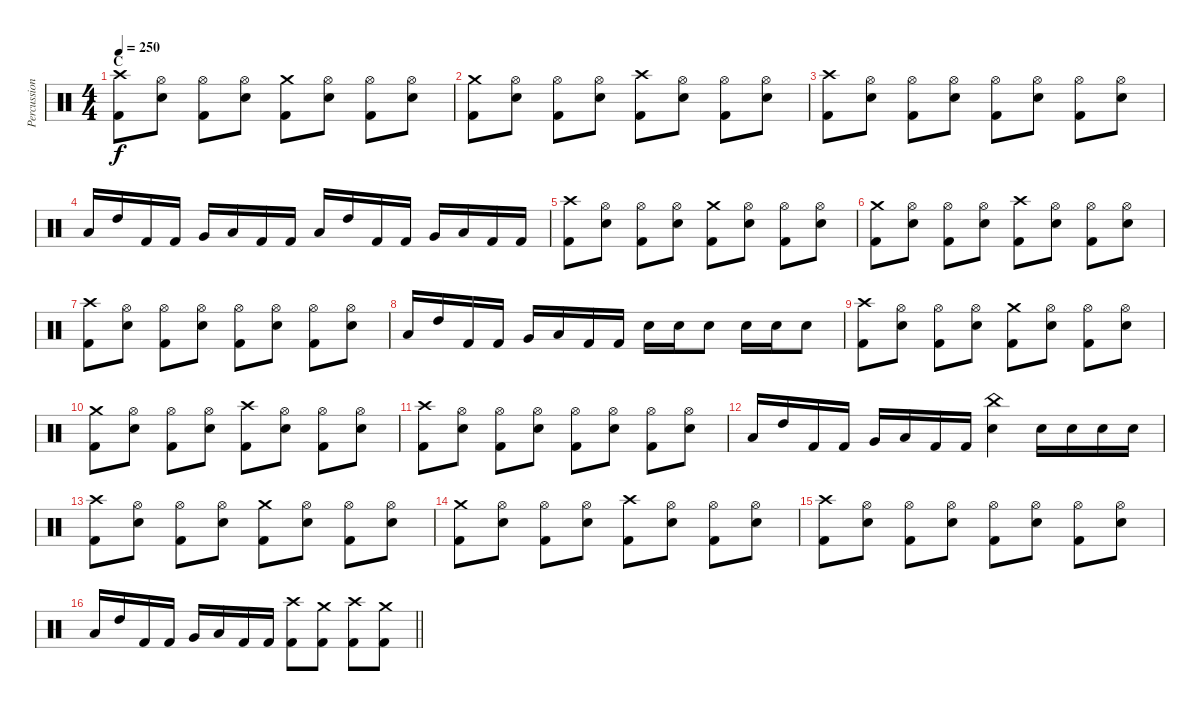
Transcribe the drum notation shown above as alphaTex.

\track ("Percussion" "Percussion") {instrument percussion}
\staff {score}
\articulation defaults
\ts (4 4)
\section ("" "C")
\tempo 250
\clef neutral
\ks c
("Crash high (hit)" "Kick (hit) 2").8{dy f} ("Hi-Hat (open)" "Electric Snare (hit)").8 ("Hi-Hat (open)" "Kick (hit) 2").8 ("Hi-Hat (open)" "Electric Snare (hit)").8 ("Crash medium (hit)" "Kick (hit) 2").8 ("Hi-Hat (open)" "Electric Snare (hit)").8 ("Hi-Hat (open)" "Kick (hit) 2").8 ("Hi-Hat (open)" "Electric Snare (hit)").8 |
("Crash medium (hit)" "Kick (hit) 2").8 ("Hi-Hat (open)" "Electric Snare (hit)").8 ("Hi-Hat (open)" "Kick (hit) 2").8 ("Hi-Hat (open)" "Electric Snare (hit)").8 ("Crash high (hit)" "Kick (hit) 2").8 ("Hi-Hat (open)" "Electric Snare (hit)").8 ("Hi-Hat (open)" "Kick (hit) 2").8 ("Hi-Hat (open)" "Electric Snare (hit)").8 |
("Crash high (hit)" "Kick (hit) 2").8 ("Hi-Hat (open)" "Electric Snare (hit)").8 ("Hi-Hat (open)" "Kick (hit) 2").8 ("Hi-Hat (open)" "Electric Snare (hit)").8 ("Hi-Hat (open)" "Kick (hit) 2").8 ("Hi-Hat (open)" "Electric Snare (hit)").8 ("Hi-Hat (open)" "Kick (hit) 2").8 ("Hi-Hat (open)" "Electric Snare (hit)").8 |
"Low Tom (hit)".16 "High Tom (hit)".16 "Kick (hit) 2".16 "Kick (hit) 2".16 "Very Low Tom (hit)".16 "Low Tom (hit)".16 "Kick (hit) 2".16 "Kick (hit) 2".16 "Low Tom (hit)".16 "High Tom (hit)".16 "Kick (hit) 2".16 "Kick (hit) 2".16 "Very Low Tom (hit)".16 "Low Tom (hit)".16 "Kick (hit) 2".16 "Kick (hit) 2".16 |
("Crash high (hit)" "Kick (hit) 2").8 ("Hi-Hat (open)" "Electric Snare (hit)").8 ("Hi-Hat (open)" "Kick (hit) 2").8 ("Hi-Hat (open)" "Electric Snare (hit)").8 ("Crash medium (hit)" "Kick (hit) 2").8 ("Hi-Hat (open)" "Electric Snare (hit)").8 ("Hi-Hat (open)" "Kick (hit) 2").8 ("Hi-Hat (open)" "Electric Snare (hit)").8 |
("Crash medium (hit)" "Kick (hit) 2").8 ("Hi-Hat (open)" "Electric Snare (hit)").8 ("Hi-Hat (open)" "Kick (hit) 2").8 ("Hi-Hat (open)" "Electric Snare (hit)").8 ("Crash high (hit)" "Kick (hit) 2").8 ("Hi-Hat (open)" "Electric Snare (hit)").8 ("Hi-Hat (open)" "Kick (hit) 2").8 ("Hi-Hat (open)" "Electric Snare (hit)").8 |
("Crash high (hit)" "Kick (hit) 2").8 ("Hi-Hat (open)" "Electric Snare (hit)").8 ("Hi-Hat (open)" "Kick (hit) 2").8 ("Hi-Hat (open)" "Electric Snare (hit)").8 ("Hi-Hat (open)" "Kick (hit) 2").8 ("Hi-Hat (open)" "Electric Snare (hit)").8 ("Hi-Hat (open)" "Kick (hit) 2").8 ("Hi-Hat (open)" "Electric Snare (hit)").8 |
"Low Tom (hit)".16 "High Tom (hit)".16 "Kick (hit) 2".16 "Kick (hit) 2".16 "Very Low Tom (hit)".16 "Low Tom (hit)".16 "Kick (hit) 2".16 "Kick (hit) 2".16 "Electric Snare (hit)".16 "Electric Snare (hit)".16 "Electric Snare (hit)".8 "Electric Snare (hit)".16 "Electric Snare (hit)".16 "Electric Snare (hit)".8 |
("Crash high (hit)" "Kick (hit) 2").8 ("Hi-Hat (open)" "Electric Snare (hit)").8 ("Hi-Hat (open)" "Kick (hit) 2").8 ("Hi-Hat (open)" "Electric Snare (hit)").8 ("Crash medium (hit)" "Kick (hit) 2").8 ("Hi-Hat (open)" "Electric Snare (hit)").8 ("Hi-Hat (open)" "Kick (hit) 2").8 ("Hi-Hat (open)" "Electric Snare (hit)").8 |
("Crash medium (hit)" "Kick (hit) 2").8 ("Hi-Hat (open)" "Electric Snare (hit)").8 ("Hi-Hat (open)" "Kick (hit) 2").8 ("Hi-Hat (open)" "Electric Snare (hit)").8 ("Crash high (hit)" "Kick (hit) 2").8 ("Hi-Hat (open)" "Electric Snare (hit)").8 ("Hi-Hat (open)" "Kick (hit) 2").8 ("Hi-Hat (open)" "Electric Snare (hit)").8 |
("Crash high (hit)" "Kick (hit) 2").8 ("Hi-Hat (open)" "Electric Snare (hit)").8 ("Hi-Hat (open)" "Kick (hit) 2").8 ("Hi-Hat (open)" "Electric Snare (hit)").8 ("Hi-Hat (open)" "Kick (hit) 2").8 ("Hi-Hat (open)" "Electric Snare (hit)").8 ("Hi-Hat (open)" "Kick (hit) 2").8 ("Hi-Hat (open)" "Electric Snare (hit)").8 |
"Low Tom (hit)".16 "High Tom (hit)".16 "Kick (hit) 2".16 "Kick (hit) 2".16 "Very Low Tom (hit)".16 "Low Tom (hit)".16 "Kick (hit) 2".16 "Kick (hit) 2".16 ("China (hit)" "Electric Snare (hit)").4 "Electric Snare (hit)".16 "Electric Snare (hit)".16 "Electric Snare (hit)".16 "Electric Snare (hit)".16 |
("Crash high (hit)" "Kick (hit) 2").8 ("Hi-Hat (open)" "Electric Snare (hit)").8 ("Hi-Hat (open)" "Kick (hit) 2").8 ("Hi-Hat (open)" "Electric Snare (hit)").8 ("Crash medium (hit)" "Kick (hit) 2").8 ("Hi-Hat (open)" "Electric Snare (hit)").8 ("Hi-Hat (open)" "Kick (hit) 2").8 ("Hi-Hat (open)" "Electric Snare (hit)").8 |
("Crash medium (hit)" "Kick (hit) 2").8 ("Hi-Hat (open)" "Electric Snare (hit)").8 ("Hi-Hat (open)" "Kick (hit) 2").8 ("Hi-Hat (open)" "Electric Snare (hit)").8 ("Crash high (hit)" "Kick (hit) 2").8 ("Hi-Hat (open)" "Electric Snare (hit)").8 ("Hi-Hat (open)" "Kick (hit) 2").8 ("Hi-Hat (open)" "Electric Snare (hit)").8 |
("Crash high (hit)" "Kick (hit) 2").8 ("Hi-Hat (open)" "Electric Snare (hit)").8 ("Hi-Hat (open)" "Kick (hit) 2").8 ("Hi-Hat (open)" "Electric Snare (hit)").8 ("Hi-Hat (open)" "Kick (hit) 2").8 ("Hi-Hat (open)" "Electric Snare (hit)").8 ("Hi-Hat (open)" "Kick (hit) 2").8 ("Hi-Hat (open)" "Electric Snare (hit)").8 |
\barLineRight lightlight "Low Tom (hit)".16 "High Tom (hit)".16 "Kick (hit) 2".16 "Kick (hit) 2".16 "Very Low Tom (hit)".16 "Low Tom (hit)".16 "Kick (hit) 2".16 "Kick (hit) 2".16
("Crash high (hit)" "Kick (hit) 2").8 ("Crash medium (hit)" "Kick (hit) 2").8 ("Crash high (hit)" "Kick (hit) 2").8 ("Crash medium (hit)" "Kick (hit) 2").8
